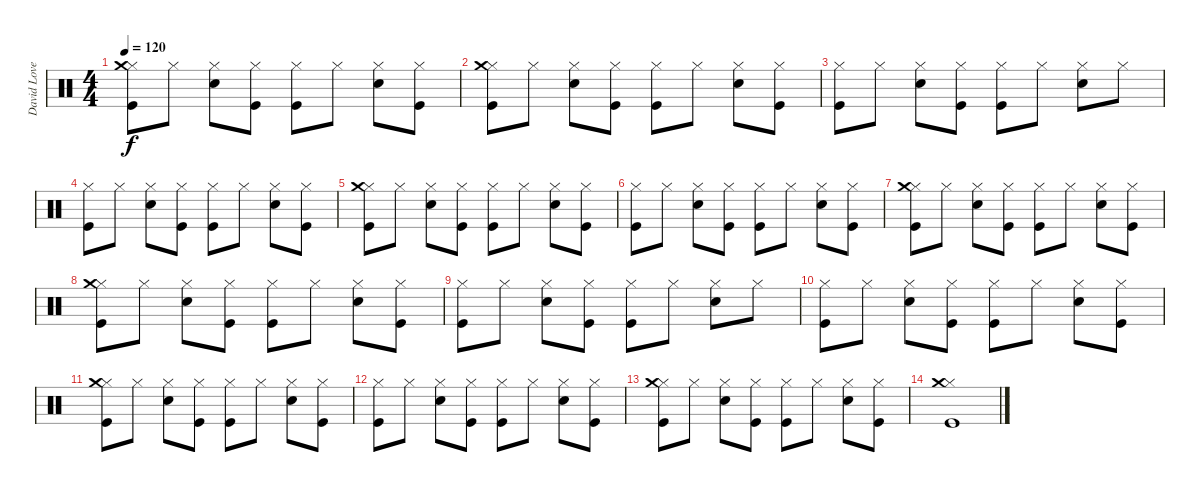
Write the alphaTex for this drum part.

\track ("David Lovering" "David Love") {instrument percussion}
\staff {score}
\articulation defaults
\ts (4 4)
\tempo 120
\clef neutral
\ks c
("Hi-Hat (closed)" "Crash medium (hit)" "Kick (hit)").8{dy f} "Hi-Hat (closed)".8 ("Hi-Hat (closed)" "Snare (hit) 2").8 ("Hi-Hat (closed)" "Kick (hit)").8 ("Hi-Hat (closed)" "Kick (hit)").8 "Hi-Hat (closed)".8 ("Hi-Hat (closed)" "Snare (hit) 2").8 ("Hi-Hat (closed)" "Kick (hit)").8 |
("Hi-Hat (closed)" "Crash medium (hit)" "Kick (hit)").8 "Hi-Hat (closed)".8 ("Hi-Hat (closed)" "Snare (hit) 2").8 ("Hi-Hat (closed)" "Kick (hit)").8 ("Hi-Hat (closed)" "Kick (hit)").8 "Hi-Hat (closed)".8 ("Hi-Hat (closed)" "Snare (hit) 2").8 ("Hi-Hat (closed)" "Kick (hit)").8 |
("Hi-Hat (closed)" "Kick (hit)").8 "Hi-Hat (closed)".8 ("Hi-Hat (closed)" "Snare (hit) 2").8 ("Hi-Hat (closed)" "Kick (hit)").8 ("Hi-Hat (closed)" "Kick (hit)").8 "Hi-Hat (closed)".8 ("Hi-Hat (closed)" "Snare (hit) 2").8 "Hi-Hat (closed)".8 |
("Hi-Hat (closed)" "Kick (hit)").8 "Hi-Hat (closed)".8 ("Hi-Hat (closed)" "Snare (hit) 2").8 ("Hi-Hat (closed)" "Kick (hit)").8 ("Hi-Hat (closed)" "Kick (hit)").8 "Hi-Hat (closed)".8 ("Hi-Hat (closed)" "Snare (hit) 2").8 ("Hi-Hat (closed)" "Kick (hit)").8 |
("Hi-Hat (closed)" "Crash medium (hit)" "Kick (hit)").8 "Hi-Hat (closed)".8 ("Hi-Hat (closed)" "Snare (hit) 2").8 ("Hi-Hat (closed)" "Kick (hit)").8 ("Hi-Hat (closed)" "Kick (hit)").8 "Hi-Hat (closed)".8 ("Hi-Hat (closed)" "Snare (hit) 2").8 ("Hi-Hat (closed)" "Kick (hit)").8 |
("Hi-Hat (closed)" "Kick (hit)").8 "Hi-Hat (closed)".8 ("Hi-Hat (closed)" "Snare (hit) 2").8 ("Hi-Hat (closed)" "Kick (hit)").8 ("Hi-Hat (closed)" "Kick (hit)").8 "Hi-Hat (closed)".8 ("Hi-Hat (closed)" "Snare (hit) 2").8 ("Hi-Hat (closed)" "Kick (hit)").8 |
("Hi-Hat (closed)" "Crash medium (hit)" "Kick (hit)").8 "Hi-Hat (closed)".8 ("Hi-Hat (closed)" "Snare (hit) 2").8 ("Hi-Hat (closed)" "Kick (hit)").8 ("Hi-Hat (closed)" "Kick (hit)").8 "Hi-Hat (closed)".8 ("Hi-Hat (closed)" "Snare (hit) 2").8 ("Hi-Hat (closed)" "Kick (hit)").8 |
("Hi-Hat (closed)" "Crash medium (hit)" "Kick (hit)").8 "Hi-Hat (closed)".8 ("Hi-Hat (closed)" "Snare (hit) 2").8 ("Hi-Hat (closed)" "Kick (hit)").8 ("Hi-Hat (closed)" "Kick (hit)").8 "Hi-Hat (closed)".8 ("Hi-Hat (closed)" "Snare (hit) 2").8 ("Hi-Hat (closed)" "Kick (hit)").8 |
("Hi-Hat (closed)" "Kick (hit)").8 "Hi-Hat (closed)".8 ("Hi-Hat (closed)" "Snare (hit) 2").8 ("Hi-Hat (closed)" "Kick (hit)").8 ("Hi-Hat (closed)" "Kick (hit)").8 "Hi-Hat (closed)".8 ("Hi-Hat (closed)" "Snare (hit) 2").8 "Hi-Hat (closed)".8 |
("Hi-Hat (closed)" "Kick (hit)").8 "Hi-Hat (closed)".8 ("Hi-Hat (closed)" "Snare (hit) 2").8 ("Hi-Hat (closed)" "Kick (hit)").8 ("Hi-Hat (closed)" "Kick (hit)").8 "Hi-Hat (closed)".8 ("Hi-Hat (closed)" "Snare (hit) 2").8 ("Hi-Hat (closed)" "Kick (hit)").8 |
("Hi-Hat (closed)" "Crash medium (hit)" "Kick (hit)").8 "Hi-Hat (closed)".8 ("Hi-Hat (closed)" "Snare (hit) 2").8 ("Hi-Hat (closed)" "Kick (hit)").8 ("Hi-Hat (closed)" "Kick (hit)").8 "Hi-Hat (closed)".8 ("Hi-Hat (closed)" "Snare (hit) 2").8 ("Hi-Hat (closed)" "Kick (hit)").8 |
("Hi-Hat (closed)" "Kick (hit)").8 "Hi-Hat (closed)".8 ("Hi-Hat (closed)" "Snare (hit) 2").8 ("Hi-Hat (closed)" "Kick (hit)").8 ("Hi-Hat (closed)" "Kick (hit)").8 "Hi-Hat (closed)".8 ("Hi-Hat (closed)" "Snare (hit) 2").8 ("Hi-Hat (closed)" "Kick (hit)").8 |
("Hi-Hat (closed)" "Crash medium (hit)" "Kick (hit)").8 "Hi-Hat (closed)".8 ("Hi-Hat (closed)" "Snare (hit) 2").8 ("Hi-Hat (closed)" "Kick (hit)").8 ("Hi-Hat (closed)" "Kick (hit)").8 "Hi-Hat (closed)".8 ("Hi-Hat (closed)" "Snare (hit) 2").8 ("Hi-Hat (closed)" "Kick (hit)").8 |
\section ("" "")
("Hi-Hat (closed)" "Crash medium (hit)" "Kick (hit)").1
